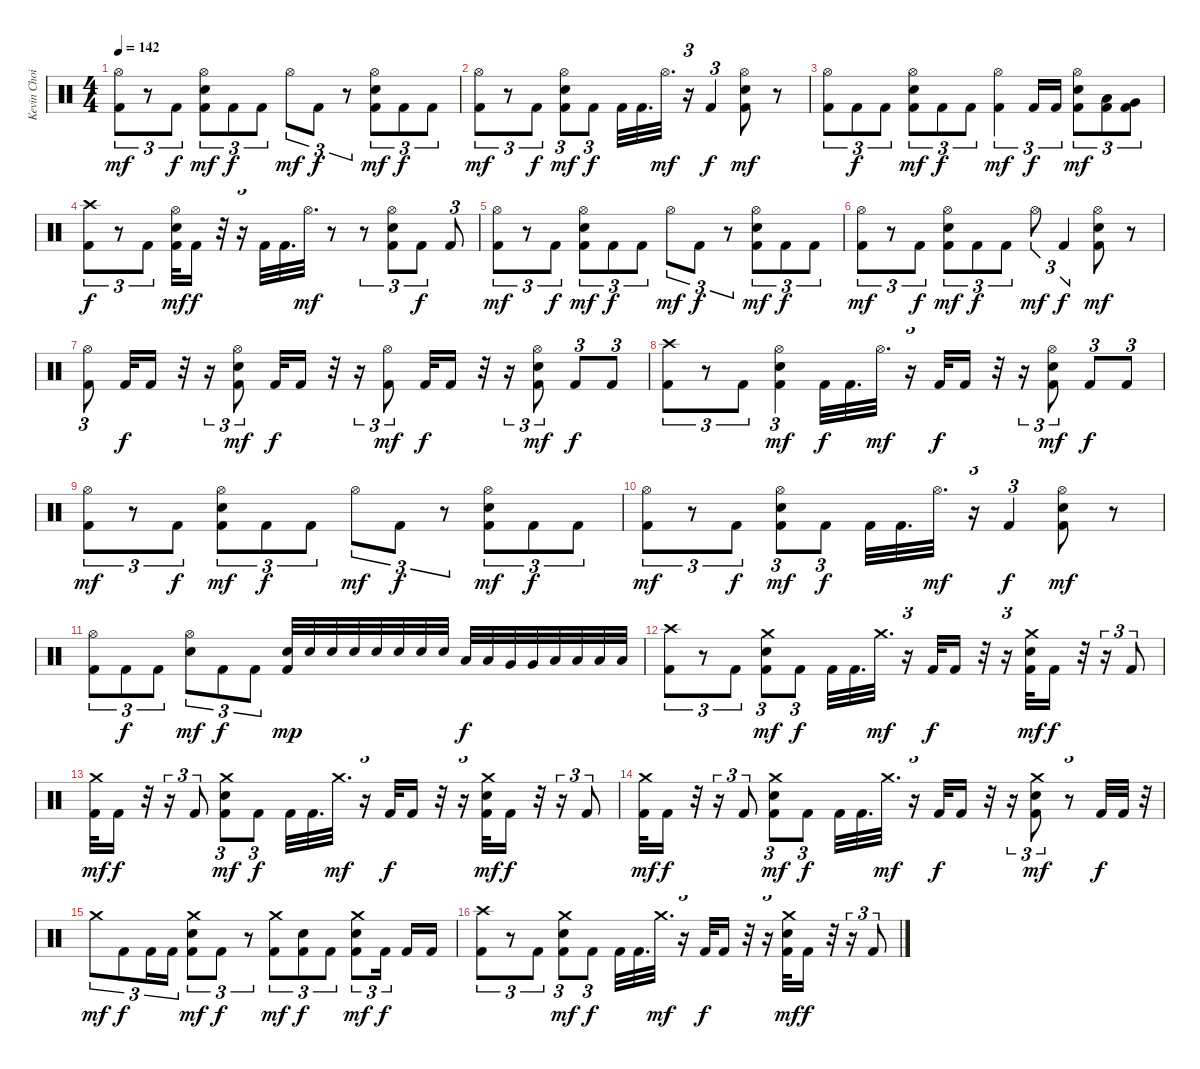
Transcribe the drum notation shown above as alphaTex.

\track ("Kevin Choiral" "Kevin Choi") {instrument percussion}
\staff
\articulation defaults
\ts (4 4)
\tempo 142
\clef neutral
\ks c
("Hi-Hat (open)" "Kick (hit) 2").8{tu (3 2) dy mf} r.8{tu (3 2)} "Kick (hit) 2".8{tu (3 2) dy f} ("Hi-Hat (open)" "Electric Snare (hit)" "Kick (hit) 2").8{tu (3 2) dy mf} "Kick (hit) 2".8{tu (3 2) dy f} "Kick (hit) 2".8{tu (3 2)} "Hi-Hat (open)".8{tu (3 2) dy mf} "Kick (hit) 2".8{tu (3 2) dy f} r.8{tu (3 2)} ("Hi-Hat (open)" "Electric Snare (hit)" "Kick (hit) 2").8{tu (3 2) dy mf} "Kick (hit) 2".8{tu (3 2) dy f} "Kick (hit) 2".8{tu (3 2)} |
("Hi-Hat (open)" "Kick (hit) 2").8{tu (3 2) dy mf} r.8{tu (3 2)} "Kick (hit) 2".8{tu (3 2) dy f} ("Hi-Hat (open)" "Electric Snare (hit)" "Kick (hit) 2").8{tu (3 2) dy mf} "Kick (hit) 2".8{tu (3 2) dy f} "Kick (hit) 2".32 "Kick (hit) 2".32{d} "Hi-Hat (open)".32{d dy mf} r.16{tu (3 2)} "Kick (hit) 2".4{tu (3 2) dy f} ("Hi-Hat (open)" "Electric Snare (hit)" "Kick (hit) 2").8{dy mf} r.8 |
("Hi-Hat (open)" "Kick (hit) 2").8{tu (3 2)} "Kick (hit) 2".8{tu (3 2) dy f} "Kick (hit) 2".8{tu (3 2)} ("Hi-Hat (open)" "Electric Snare (hit)" "Kick (hit) 2").8{tu (3 2) dy mf} "Kick (hit) 2".8{tu (3 2) dy f} "Kick (hit) 2".8{tu (3 2)} ("Hi-Hat (open)" "Kick (hit) 2").4{tu (3 2) dy mf} "Kick (hit) 2".16{tu (3 2) dy f} "Kick (hit) 2".16{tu (3 2)} ("Hi-Hat (open)" "Electric Snare (hit)" "Kick (hit) 2").8{tu (3 2) dy mf} ("Low Tom (hit)" "Kick (hit) 2").8{tu (3 2)} ("Very Low Tom (hit)" "Kick (hit) 2").8{tu (3 2)} |
("Crash high (hit)" "Kick (hit) 2").8{tu (3 2) dy f} r.8{tu (3 2)} "Kick (hit) 2".8{tu (3 2)} ("Hi-Hat (open)" "Electric Snare (hit)" "Kick (hit) 2").32{dy mf} "Kick (hit) 2".16{dy f} r.32 r.16{tu (3 2)} "Kick (hit) 2".32 "Kick (hit) 2".32{d} "Hi-Hat (open)".32{d dy mf} r.8 r.8{tu (3 2)} ("Hi-Hat (open)" "Electric Snare (hit)" "Kick (hit) 2").8{tu (3 2)} "Kick (hit) 2".8{tu (3 2) dy f} "Kick (hit) 2".8{tu (3 2)} |
("Hi-Hat (open)" "Kick (hit) 2").8{tu (3 2) dy mf} r.8{tu (3 2)} "Kick (hit) 2".8{tu (3 2) dy f} ("Hi-Hat (open)" "Electric Snare (hit)" "Kick (hit) 2").8{tu (3 2) dy mf} "Kick (hit) 2".8{tu (3 2) dy f} "Kick (hit) 2".8{tu (3 2)} "Hi-Hat (open)".8{tu (3 2) dy mf} "Kick (hit) 2".8{tu (3 2) dy f} r.8{tu (3 2)} ("Hi-Hat (open)" "Electric Snare (hit)" "Kick (hit) 2").8{tu (3 2) dy mf} "Kick (hit) 2".8{tu (3 2) dy f} "Kick (hit) 2".8{tu (3 2)} |
("Hi-Hat (open)" "Kick (hit) 2").8{tu (3 2) dy mf} r.8{tu (3 2)} "Kick (hit) 2".8{tu (3 2) dy f} ("Hi-Hat (open)" "Electric Snare (hit)" "Kick (hit) 2").8{tu (3 2) dy mf} "Kick (hit) 2".8{tu (3 2) dy f} "Kick (hit) 2".8{tu (3 2)} "Hi-Hat (open)".8{tu (3 2) dy mf} "Kick (hit) 2".4{tu (3 2) dy f} ("Hi-Hat (open)" "Electric Snare (hit)" "Kick (hit) 2").8{dy mf} r.8 |
("Hi-Hat (open)" "Kick (hit) 2").8{tu (3 2)} "Kick (hit) 2".32{dy f} "Kick (hit) 2".16 r.32 r.16{tu (3 2)} ("Hi-Hat (open)" "Electric Snare (hit)" "Kick (hit) 2").8{tu (3 2) dy mf} "Kick (hit) 2".32{dy f} "Kick (hit) 2".16 r.32 r.16{tu (3 2)} ("Hi-Hat (open)" "Kick (hit) 2").8{tu (3 2) dy mf} "Kick (hit) 2".32{dy f} "Kick (hit) 2".16 r.32 r.16{tu (3 2)} ("Hi-Hat (open)" "Electric Snare (hit)" "Kick (hit) 2").8{tu (3 2) dy mf} "Kick (hit) 2".8{tu (3 2) dy f} "Kick (hit) 2".8{tu (3 2)} |
("Crash high (hit)" "Kick (hit) 2").8{tu (3 2)} r.8{tu (3 2)} "Kick (hit) 2".8{tu (3 2)} ("Hi-Hat (open)" "Electric Snare (hit)" "Kick (hit) 2").4{tu (3 2) dy mf} "Kick (hit) 2".32{dy f} "Kick (hit) 2".32{d} "Hi-Hat (open)".32{d dy mf} r.16{tu (3 2)} "Kick (hit) 2".32{dy f} "Kick (hit) 2".16 r.32 r.16{tu (3 2)} ("Hi-Hat (open)" "Electric Snare (hit)" "Kick (hit) 2").8{tu (3 2) dy mf} "Kick (hit) 2".8{tu (3 2) dy f} "Kick (hit) 2".8{tu (3 2)} |
("Hi-Hat (open)" "Kick (hit) 2").8{tu (3 2) dy mf} r.8{tu (3 2)} "Kick (hit) 2".8{tu (3 2) dy f} ("Hi-Hat (open)" "Electric Snare (hit)" "Kick (hit) 2").8{tu (3 2) dy mf} "Kick (hit) 2".8{tu (3 2) dy f} "Kick (hit) 2".8{tu (3 2)} "Hi-Hat (open)".8{tu (3 2) dy mf} "Kick (hit) 2".8{tu (3 2) dy f} r.8{tu (3 2)} ("Hi-Hat (open)" "Electric Snare (hit)" "Kick (hit) 2").8{tu (3 2) dy mf} "Kick (hit) 2".8{tu (3 2) dy f} "Kick (hit) 2".8{tu (3 2)} |
("Hi-Hat (open)" "Kick (hit) 2").8{tu (3 2) dy mf} r.8{tu (3 2)} "Kick (hit) 2".8{tu (3 2) dy f} ("Hi-Hat (open)" "Electric Snare (hit)" "Kick (hit) 2").8{tu (3 2) dy mf} "Kick (hit) 2".8{tu (3 2) dy f} "Kick (hit) 2".32 "Kick (hit) 2".32{d} "Hi-Hat (open)".32{d dy mf} r.16{tu (3 2)} "Kick (hit) 2".4{tu (3 2) dy f} ("Hi-Hat (open)" "Electric Snare (hit)" "Kick (hit) 2").8{dy mf} r.8 |
("Hi-Hat (open)" "Kick (hit) 2").8{tu (3 2)} "Kick (hit) 2".8{tu (3 2) dy f} "Kick (hit) 2".8{tu (3 2)} ("Hi-Hat (open)" "Electric Snare (hit)").8{tu (3 2) dy mf} "Kick (hit) 2".8{tu (3 2) dy f} "Kick (hit) 2".8{tu (3 2)} ("Electric Snare (hit)" "Kick (hit) 2").32{dy mp} "Electric Snare (hit)".32 "Electric Snare (hit)".32 "Electric Snare (hit)".32 "Electric Snare (hit)".32 "Electric Snare (hit)".32 "Electric Snare (hit)".32 "Electric Snare (hit)".32 "Low Tom (hit)".32{dy f} "Low Tom (hit)".32 "Very Low Tom (hit)".32 "Very Low Tom (hit)".32 "Low Floor Tom (hit)".32 "Low Floor Tom (hit)".32 "Low Floor Tom (hit)".32 "Low Floor Tom (hit)".32 |
("Crash high (hit)" "Kick (hit) 2").8{tu (3 2)} r.8{tu (3 2)} "Kick (hit) 2".8{tu (3 2)} ("Crash medium (hit)" "Electric Snare (hit)" "Kick (hit) 2").8{tu (3 2) dy mf} "Kick (hit) 2".8{tu (3 2) dy f} "Kick (hit) 2".32 "Kick (hit) 2".32{d} "Crash medium (hit)".32{d dy mf} r.16{tu (3 2)} "Kick (hit) 2".32{dy f} "Kick (hit) 2".16 r.32 r.16{tu (3 2)} ("Crash medium (hit)" "Electric Snare (hit)" "Kick (hit) 2").32{dy mf} "Kick (hit) 2".16{dy f} r.32 r.16{tu (3 2)} "Kick (hit) 2".8{tu (3 2)} |
("Crash medium (hit)" "Kick (hit) 2").32{dy mf} "Kick (hit) 2".16{dy f} r.32 r.16{tu (3 2)} "Kick (hit) 2".8{tu (3 2)} ("Crash medium (hit)" "Electric Snare (hit)" "Kick (hit) 2").8{tu (3 2) dy mf} "Kick (hit) 2".8{tu (3 2) dy f} "Kick (hit) 2".32 "Kick (hit) 2".32{d} "Crash medium (hit)".32{d dy mf} r.16{tu (3 2)} "Kick (hit) 2".32{dy f} "Kick (hit) 2".16 r.32 r.16{tu (3 2)} ("Crash medium (hit)" "Electric Snare (hit)" "Kick (hit) 2").32{dy mf} "Kick (hit) 2".16{dy f} r.32 r.16{tu (3 2)} "Kick (hit) 2".8{tu (3 2)} |
("Crash medium (hit)" "Kick (hit) 2").32{dy mf} "Kick (hit) 2".16{dy f} r.32 r.16{tu (3 2)} "Kick (hit) 2".8{tu (3 2)} ("Crash medium (hit)" "Electric Snare (hit)" "Kick (hit) 2").8{tu (3 2) dy mf} "Kick (hit) 2".8{tu (3 2) dy f} "Kick (hit) 2".32 "Kick (hit) 2".32{d} "Crash medium (hit)".32{d dy mf} r.16{tu (3 2)} "Kick (hit) 2".32{dy f} "Kick (hit) 2".16 r.32 r.16{tu (3 2)} ("Crash medium (hit)" "Electric Snare (hit)" "Kick (hit) 2").8{tu (3 2) dy mf} r.8{tu (3 2)} "Kick (hit) 2".32{dy f} "Kick (hit) 2".32 r.32{tu (3 2)} |
"Crash medium (hit)".8{tu (3 2) dy mf} "Kick (hit) 2".8{tu (3 2) dy f} "Kick (hit) 2".16{tu (3 2)} "Kick (hit) 2".16{tu (3 2)} ("Crash medium (hit)" "Electric Snare (hit)" "Kick (hit) 2").8{tu (3 2) dy mf} "Kick (hit) 2".8{tu (3 2) dy f} r.8{tu (3 2)} ("Crash medium (hit)" "Kick (hit) 2").8{tu (3 2) dy mf} ("Electric Snare (hit)" "Kick (hit) 2").8{tu (3 2) dy f} "Kick (hit) 2".8{tu (3 2)} ("Crash medium (hit)" "Electric Snare (hit)" "Kick (hit) 2").8{tu (3 2) dy mf} "Kick (hit) 2".16{tu (3 2) dy f beam splitsecondary} "Kick (hit) 2".16 "Kick (hit) 2".16 |
("Crash high (hit)" "Kick (hit) 2").8{tu (3 2)} r.8{tu (3 2)} "Kick (hit) 2".8{tu (3 2)} ("Crash medium (hit)" "Electric Snare (hit)" "Kick (hit) 2").8{tu (3 2) dy mf} "Kick (hit) 2".8{tu (3 2) dy f} "Kick (hit) 2".32 "Kick (hit) 2".32{d} "Crash medium (hit)".32{d dy mf} r.16{tu (3 2)} "Kick (hit) 2".32{dy f} "Kick (hit) 2".16 r.32 r.16{tu (3 2)} ("Crash medium (hit)" "Electric Snare (hit)" "Kick (hit) 2").32{dy mf} "Kick (hit) 2".16{dy f} r.32 r.16{tu (3 2)} "Kick (hit) 2".8{tu (3 2)}
